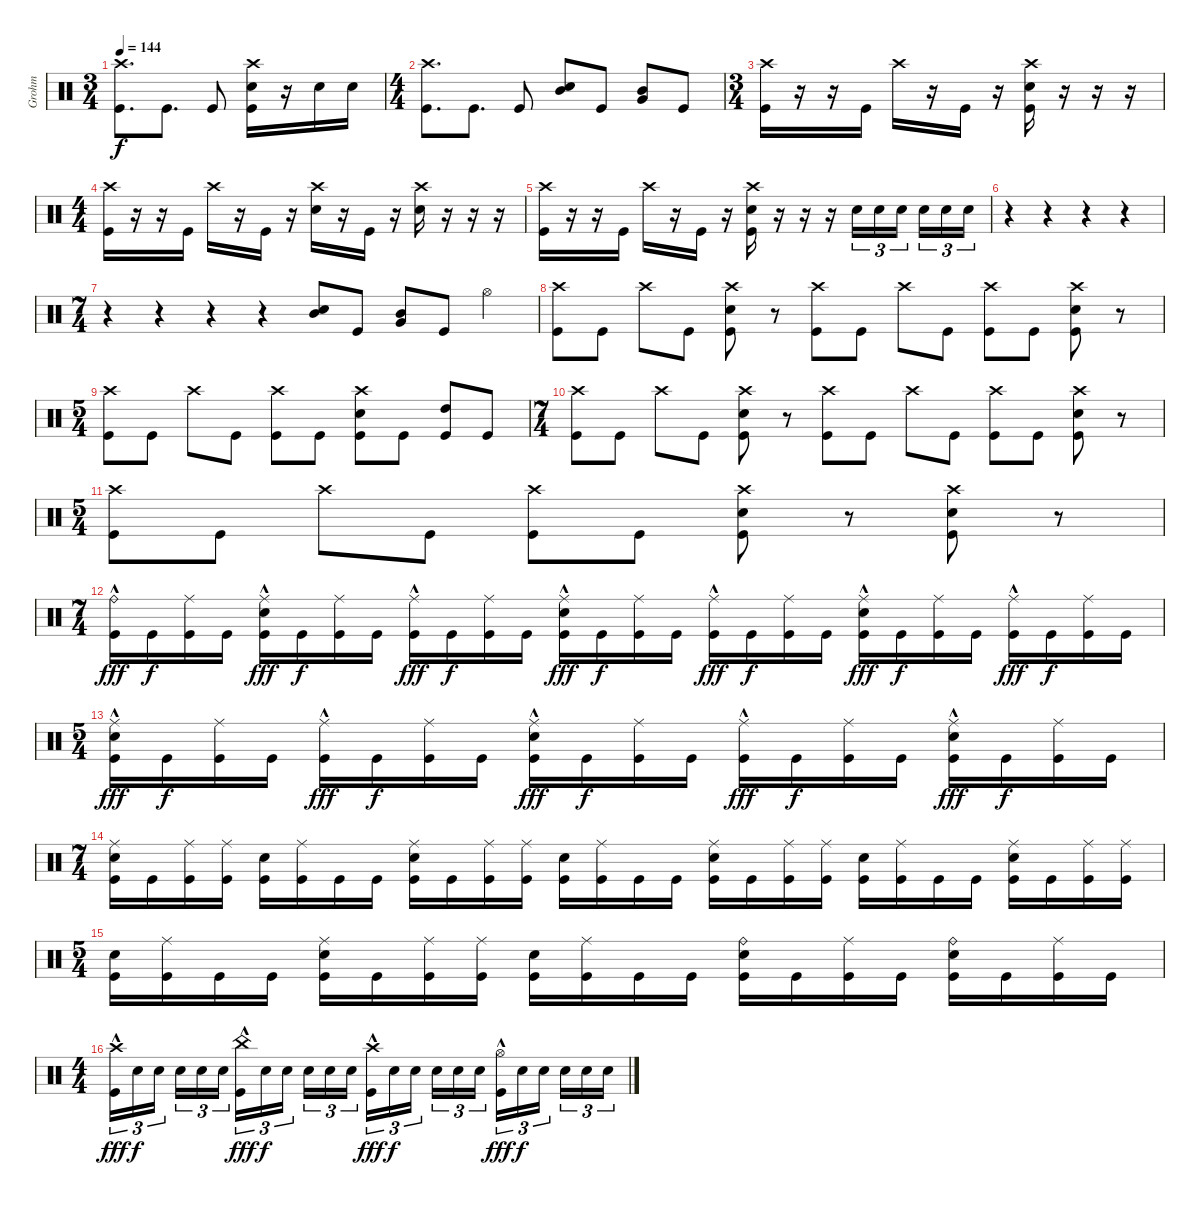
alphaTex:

\track ("Grohm" "Grohm") {instrument percussion}
\staff {score}
\articulation defaults
\ts (3 4)
\tempo 144
\clef neutral
\ks c
("Crash high (hit)" "Kick (hit)").8{d dy f} "Kick (hit)".8{d} "Kick (hit)".8 ("Crash high (hit)" "Snare (hit) 2" "Kick (hit)").16 r.16 "Snare (hit) 2".16 "Snare (hit) 2".16 |
\ts (4 4)
("Crash high (hit)" "Kick (hit)").8{d} "Kick (hit)".8{d} "Kick (hit)".8 ("Mid Tom (hit)" "Snare (hit) 2").8 "Kick (hit)".8 ("Mid Tom (hit)" "Very Low Tom (hit)").8 "Kick (hit)".8 |
\ts (3 4)
("Crash high (hit)" "Kick (hit)").16 r.16 r.16 "Kick (hit)".16 "Crash high (hit)".16 r.16 "Kick (hit)".16 r.16 ("Crash high (hit)" "Snare (hit) 2" "Kick (hit)").16 r.16 r.16 r.16 |
\ts (4 4)
("Crash high (hit)" "Kick (hit)").16 r.16 r.16 "Kick (hit)".16 "Crash high (hit)".16 r.16 "Kick (hit)".16 r.16 ("Crash high (hit)" "Snare (hit) 2").16 r.16 "Kick (hit)".16 r.16 ("Crash high (hit)" "Snare (hit) 2").16 r.16 r.16 r.16 |
("Crash high (hit)" "Kick (hit)").16 r.16 r.16 "Kick (hit)".16 "Crash high (hit)".16 r.16 "Kick (hit)".16 r.16 ("Crash high (hit)" "Snare (hit) 2" "Kick (hit)").16 r.16 r.16 r.16 "Snare (hit) 2".16{tu (3 2)} "Snare (hit) 2".16{tu (3 2)} "Snare (hit) 2".16{tu (3 2) beam splitsecondary} "Snare (hit) 2".16{tu (3 2)} "Snare (hit) 2".16{tu (3 2)} "Snare (hit) 2".16{tu (3 2)} |
r.4 r.4 r.4 r.4 |
\ts (7 4)
r.4 r.4 r.4 r.4 ("Mid Tom (hit)" "Snare (hit) 2").8 "Kick (hit)".8 ("Mid Tom (hit)" "Very Low Tom (hit)").8 "Kick (hit)".8 "Hi-Hat (open)".4 |
("Crash high (hit)" "Kick (hit)").8 "Kick (hit)".8 "Crash high (hit)".8 "Kick (hit)".8 ("Crash high (hit)" "Snare (hit) 2" "Kick (hit)").8 r.8 ("Crash high (hit)" "Kick (hit)").8 "Kick (hit)".8 "Crash high (hit)".8 "Kick (hit)".8 ("Crash high (hit)" "Kick (hit)").8 "Kick (hit)".8 ("Crash high (hit)" "Snare (hit) 2" "Kick (hit)").8 r.8 |
\ts (5 4)
("Crash high (hit)" "Kick (hit)").8 "Kick (hit)".8 "Crash high (hit)".8 "Kick (hit)".8 ("Crash high (hit)" "Kick (hit)").8 "Kick (hit)".8 ("Crash high (hit)" "Snare (hit) 2" "Kick (hit)").8 "Kick (hit)".8 ("High Tom (hit)" "Kick (hit)").8 "Kick (hit)".8 |
\ts (7 4)
("Crash high (hit)" "Kick (hit)").8 "Kick (hit)".8 "Crash high (hit)".8 "Kick (hit)".8 ("Crash high (hit)" "Snare (hit) 2" "Kick (hit)").8 r.8 ("Crash high (hit)" "Kick (hit)").8 "Kick (hit)".8 "Crash high (hit)".8 "Kick (hit)".8 ("Crash high (hit)" "Kick (hit)").8 "Kick (hit)".8 ("Crash high (hit)" "Snare (hit) 2" "Kick (hit)").8 r.8 |
\ts (5 4)
("Crash high (hit)" "Kick (hit)").8 "Kick (hit)".8 "Crash high (hit)".8 "Kick (hit)".8 ("Crash high (hit)" "Kick (hit)").8 "Kick (hit)".8 ("Crash high (hit)" "Snare (hit) 2" "Kick (hit)").8 r.8 ("Crash high (hit)" "Snare (hit) 2" "Kick (hit)").8 r.8 |
\ts (7 4)
("Ride (bell)"{hac} "Kick (hit)").16{dy fff} "Kick (hit)".16{dy f} ("Ride (middle)" "Kick (hit)").16 "Kick (hit)".16 ("Ride (middle)"{hac} "Snare (hit) 2" "Kick (hit)").16{dy fff} "Kick (hit)".16{dy f} ("Ride (middle)" "Kick (hit)").16 "Kick (hit)".16 ("Ride (middle)"{hac} "Kick (hit)").16{dy fff} "Kick (hit)".16{dy f} ("Ride (middle)" "Kick (hit)").16 "Kick (hit)".16 ("Ride (middle)"{hac} "Snare (hit) 2" "Kick (hit)").16{dy fff} "Kick (hit)".16{dy f} ("Ride (middle)" "Kick (hit)").16 "Kick (hit)".16 ("Ride (middle)"{hac} "Kick (hit)").16{dy fff} "Kick (hit)".16{dy f} ("Ride (middle)" "Kick (hit)").16 "Kick (hit)".16 ("Ride (middle)"{hac} "Snare (hit) 2" "Kick (hit)").16{dy fff} "Kick (hit)".16{dy f} ("Ride (middle)" "Kick (hit)").16 "Kick (hit)".16 ("Ride (middle)"{hac} "Kick (hit)").16{dy fff} "Kick (hit)".16{dy f} ("Ride (middle)" "Kick (hit)").16 "Kick (hit)".16 |
\ts (5 4)
("Ride (middle)"{hac} "Snare (hit) 2" "Kick (hit)").16{dy fff} "Kick (hit)".16{dy f} ("Ride (middle)" "Kick (hit)").16 "Kick (hit)".16 ("Ride (middle)"{hac} "Kick (hit)").16{dy fff} "Kick (hit)".16{dy f} ("Ride (middle)" "Kick (hit)").16 "Kick (hit)".16 ("Ride (middle)"{hac} "Snare (hit) 2" "Kick (hit)").16{dy fff} "Kick (hit)".16{dy f} ("Ride (middle)" "Kick (hit)").16 "Kick (hit)".16 ("Ride (middle)"{hac} "Kick (hit)").16{dy fff} "Kick (hit)".16{dy f} ("Ride (middle)" "Kick (hit)").16 "Kick (hit)".16 ("Ride (middle)"{hac} "Snare (hit) 2" "Kick (hit)").16{dy fff} "Kick (hit)".16{dy f} ("Ride (middle)" "Kick (hit)").16 "Kick (hit)".16 |
\ts (7 4)
("Ride (middle)" "Snare (hit) 2" "Kick (hit)").16 "Kick (hit)".16 ("Ride (middle)" "Kick (hit)").16 ("Ride (middle)" "Kick (hit)").16 ("Snare (hit) 2" "Kick (hit)").16 ("Ride (middle)" "Kick (hit)").16 "Kick (hit)".16 "Kick (hit)".16 ("Ride (middle)" "Snare (hit) 2" "Kick (hit)").16 "Kick (hit)".16 ("Ride (middle)" "Kick (hit)").16 ("Ride (middle)" "Kick (hit)").16 ("Snare (hit) 2" "Kick (hit)").16 ("Ride (middle)" "Kick (hit)").16 "Kick (hit)".16 "Kick (hit)".16 ("Ride (middle)" "Snare (hit) 2" "Kick (hit)").16 "Kick (hit)".16 ("Ride (middle)" "Kick (hit)").16 ("Ride (middle)" "Kick (hit)").16 ("Snare (hit) 2" "Kick (hit)").16 ("Ride (middle)" "Kick (hit)").16 "Kick (hit)".16 "Kick (hit)".16 ("Ride (middle)" "Snare (hit) 2" "Kick (hit)").16 "Kick (hit)".16 ("Ride (middle)" "Kick (hit)").16 ("Ride (middle)" "Kick (hit)").16 |
\ts (5 4)
("Snare (hit) 2" "Kick (hit)").16 ("Ride (middle)" "Kick (hit)").16 "Kick (hit)".16 "Kick (hit)".16 ("Ride (middle)" "Snare (hit) 2" "Kick (hit)").16 "Kick (hit)".16 ("Ride (middle)" "Kick (hit)").16 ("Ride (middle)" "Kick (hit)").16 ("Snare (hit) 2" "Kick (hit)").16 ("Ride (middle)" "Kick (hit)").16 "Kick (hit)".16 "Kick (hit)".16 ("Ride (bell)" "Snare (hit) 2" "Kick (hit)").16 "Kick (hit)".16 ("Ride (middle)" "Kick (hit)").16 "Kick (hit)".16 ("Ride (bell)" "Snare (hit) 2" "Kick (hit)").16 "Kick (hit)".16 ("Ride (middle)" "Kick (hit)").16 "Kick (hit)".16 |
\ts (4 4)
("Crash high (hit)"{hac} "Kick (hit)"{hac}).16{tu (3 2) dy fff} "Snare (hit) 2".16{tu (3 2) dy f} "Snare (hit) 2".16{tu (3 2) beam splitsecondary} "Snare (hit) 2".16{tu (3 2)} "Snare (hit) 2".16{tu (3 2)} "Snare (hit) 2".16{tu (3 2)} ("China (hit)"{hac} "Kick (hit)"{hac}).16{tu (3 2) dy fff} "Snare (hit) 2".16{tu (3 2) dy f} "Snare (hit) 2".16{tu (3 2) beam splitsecondary} "Snare (hit) 2".16{tu (3 2)} "Snare (hit) 2".16{tu (3 2)} "Snare (hit) 2".16{tu (3 2)} ("Crash high (hit)"{hac} "Kick (hit)"{hac}).16{tu (3 2) dy fff} "Snare (hit) 2".16{tu (3 2) dy f} "Snare (hit) 2".16{tu (3 2) beam splitsecondary} "Snare (hit) 2".16{tu (3 2)} "Snare (hit) 2".16{tu (3 2)} "Snare (hit) 2".16{tu (3 2)} ("Hi-Hat (open)"{hac} "Kick (hit)"{hac}).16{tu (3 2) dy fff} "Snare (hit) 2".16{tu (3 2) dy f} "Snare (hit) 2".16{tu (3 2) beam splitsecondary} "Snare (hit) 2".16{tu (3 2)} "Snare (hit) 2".16{tu (3 2)} "Snare (hit) 2".16{tu (3 2)}
